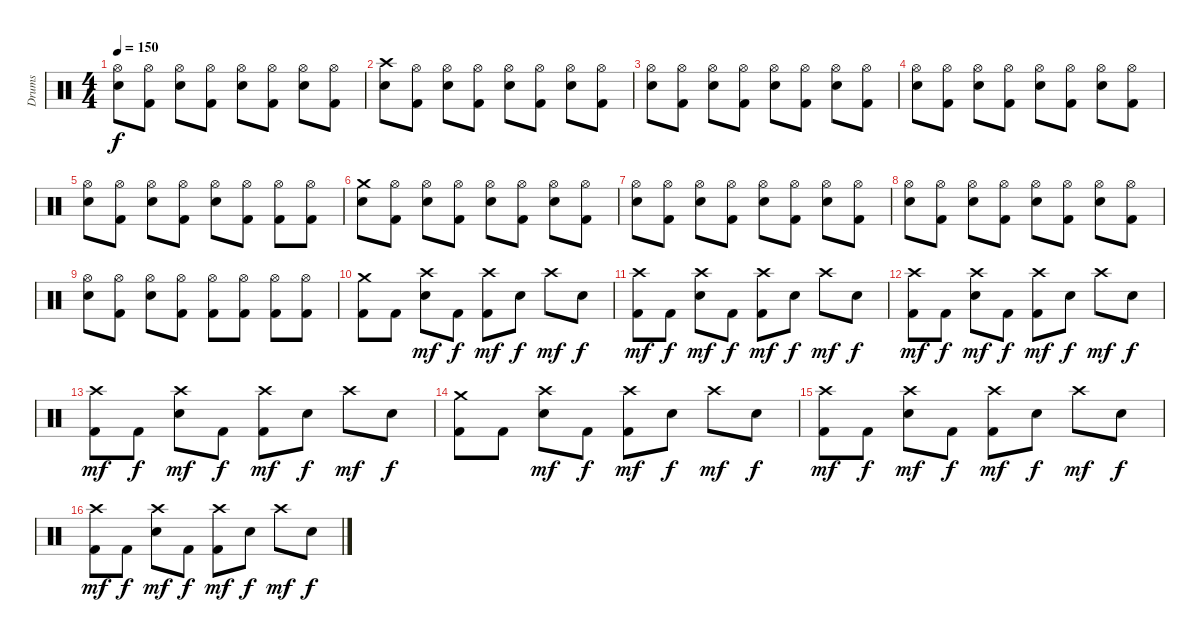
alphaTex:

\track ("Drums" "Drums") {instrument percussion}
\staff {score}
\articulation defaults
\ts (4 4)
\tempo 150
\clef neutral
\ks c
("Electric Snare (hit)" "Hi-Hat (open)").8{dy f} ("Kick (hit) 2" "Hi-Hat (open)").8 ("Electric Snare (hit)" "Hi-Hat (open)").8 ("Kick (hit) 2" "Hi-Hat (open)").8 ("Electric Snare (hit)" "Hi-Hat (open)").8 ("Kick (hit) 2" "Hi-Hat (open)").8 ("Electric Snare (hit)" "Hi-Hat (open)").8 ("Kick (hit) 2" "Hi-Hat (open)").8 |
("Electric Snare (hit)" "Crash high (hit)").8 ("Kick (hit) 2" "Hi-Hat (open)").8 ("Electric Snare (hit)" "Hi-Hat (open)").8 ("Kick (hit) 2" "Hi-Hat (open)").8 ("Electric Snare (hit)" "Hi-Hat (open)").8 ("Kick (hit) 2" "Hi-Hat (open)").8 ("Electric Snare (hit)" "Hi-Hat (open)").8 ("Kick (hit) 2" "Hi-Hat (open)").8 |
("Electric Snare (hit)" "Hi-Hat (open)").8 ("Kick (hit) 2" "Hi-Hat (open)").8 ("Electric Snare (hit)" "Hi-Hat (open)").8 ("Kick (hit) 2" "Hi-Hat (open)").8 ("Electric Snare (hit)" "Hi-Hat (open)").8 ("Kick (hit) 2" "Hi-Hat (open)").8 ("Electric Snare (hit)" "Hi-Hat (open)").8 ("Kick (hit) 2" "Hi-Hat (open)").8 |
("Electric Snare (hit)" "Hi-Hat (open)").8 ("Kick (hit) 2" "Hi-Hat (open)").8 ("Electric Snare (hit)" "Hi-Hat (open)").8 ("Kick (hit) 2" "Hi-Hat (open)").8 ("Electric Snare (hit)" "Hi-Hat (open)").8 ("Kick (hit) 2" "Hi-Hat (open)").8 ("Electric Snare (hit)" "Hi-Hat (open)").8 ("Kick (hit) 2" "Hi-Hat (open)").8 |
("Electric Snare (hit)" "Hi-Hat (open)").8 ("Kick (hit) 2" "Hi-Hat (open)").8 ("Electric Snare (hit)" "Hi-Hat (open)").8 ("Kick (hit) 2" "Hi-Hat (open)").8 ("Electric Snare (hit)" "Hi-Hat (open)").8 ("Kick (hit) 2" "Hi-Hat (open)").8 ("Kick (hit) 2" "Hi-Hat (open)").8 ("Kick (hit) 2" "Hi-Hat (open)").8 |
("Electric Snare (hit)" "Crash medium (hit)").8 ("Kick (hit) 2" "Hi-Hat (open)").8 ("Electric Snare (hit)" "Hi-Hat (open)").8 ("Kick (hit) 2" "Hi-Hat (open)").8 ("Electric Snare (hit)" "Hi-Hat (open)").8 ("Kick (hit) 2" "Hi-Hat (open)").8 ("Electric Snare (hit)" "Hi-Hat (open)").8 ("Kick (hit) 2" "Hi-Hat (open)").8 |
("Electric Snare (hit)" "Hi-Hat (open)").8 ("Kick (hit) 2" "Hi-Hat (open)").8 ("Electric Snare (hit)" "Hi-Hat (open)").8 ("Kick (hit) 2" "Hi-Hat (open)").8 ("Electric Snare (hit)" "Hi-Hat (open)").8 ("Kick (hit) 2" "Hi-Hat (open)").8 ("Electric Snare (hit)" "Hi-Hat (open)").8 ("Kick (hit) 2" "Hi-Hat (open)").8 |
("Electric Snare (hit)" "Hi-Hat (open)").8 ("Kick (hit) 2" "Hi-Hat (open)").8 ("Electric Snare (hit)" "Hi-Hat (open)").8 ("Kick (hit) 2" "Hi-Hat (open)").8 ("Electric Snare (hit)" "Hi-Hat (open)").8 ("Kick (hit) 2" "Hi-Hat (open)").8 ("Electric Snare (hit)" "Hi-Hat (open)").8 ("Kick (hit) 2" "Hi-Hat (open)").8 |
("Electric Snare (hit)" "Hi-Hat (open)").8 ("Kick (hit) 2" "Hi-Hat (open)").8 ("Electric Snare (hit)" "Hi-Hat (open)").8 ("Kick (hit) 2" "Hi-Hat (open)").8 ("Kick (hit) 2" "Hi-Hat (open)").8 ("Kick (hit) 2" "Hi-Hat (open)").8 ("Kick (hit) 2" "Hi-Hat (open)").8 ("Kick (hit) 2" "Hi-Hat (open)").8 |
("Kick (hit) 2" "Crash medium (hit)").8 "Kick (hit) 2".8 ("Electric Snare (hit)" "Crash high (hit)").8{dy mf} "Kick (hit) 2".8{dy f} ("Kick (hit) 2" "Crash high (hit)").8{dy mf} "Electric Snare (hit)".8{dy f} "Crash high (hit)".8{dy mf} "Electric Snare (hit)".8{dy f} |
("Kick (hit) 2" "Crash high (hit)").8{dy mf} "Kick (hit) 2".8{dy f} ("Electric Snare (hit)" "Crash high (hit)").8{dy mf} "Kick (hit) 2".8{dy f} ("Kick (hit) 2" "Crash high (hit)").8{dy mf} "Electric Snare (hit)".8{dy f} "Crash high (hit)".8{dy mf} "Electric Snare (hit)".8{dy f} |
("Kick (hit) 2" "Crash high (hit)").8{dy mf} "Kick (hit) 2".8{dy f} ("Electric Snare (hit)" "Crash high (hit)").8{dy mf} "Kick (hit) 2".8{dy f} ("Kick (hit) 2" "Crash high (hit)").8{dy mf} "Electric Snare (hit)".8{dy f} "Crash high (hit)".8{dy mf} "Electric Snare (hit)".8{dy f} |
("Kick (hit) 2" "Crash high (hit)").8{dy mf} "Kick (hit) 2".8{dy f} ("Electric Snare (hit)" "Crash high (hit)").8{dy mf} "Kick (hit) 2".8{dy f} ("Kick (hit) 2" "Crash high (hit)").8{dy mf} "Electric Snare (hit)".8{dy f} "Crash high (hit)".8{dy mf} "Electric Snare (hit)".8{dy f} |
("Kick (hit) 2" "Crash medium (hit)").8 "Kick (hit) 2".8 ("Electric Snare (hit)" "Crash high (hit)").8{dy mf} "Kick (hit) 2".8{dy f} ("Kick (hit) 2" "Crash high (hit)").8{dy mf} "Electric Snare (hit)".8{dy f} "Crash high (hit)".8{dy mf} "Electric Snare (hit)".8{dy f} |
("Kick (hit) 2" "Crash high (hit)").8{dy mf} "Kick (hit) 2".8{dy f} ("Electric Snare (hit)" "Crash high (hit)").8{dy mf} "Kick (hit) 2".8{dy f} ("Kick (hit) 2" "Crash high (hit)").8{dy mf} "Electric Snare (hit)".8{dy f} "Crash high (hit)".8{dy mf} "Electric Snare (hit)".8{dy f} |
("Kick (hit) 2" "Crash high (hit)").8{dy mf} "Kick (hit) 2".8{dy f} ("Electric Snare (hit)" "Crash high (hit)").8{dy mf} "Kick (hit) 2".8{dy f} ("Kick (hit) 2" "Crash high (hit)").8{dy mf} "Electric Snare (hit)".8{dy f} "Crash high (hit)".8{dy mf} "Electric Snare (hit)".8{dy f}
